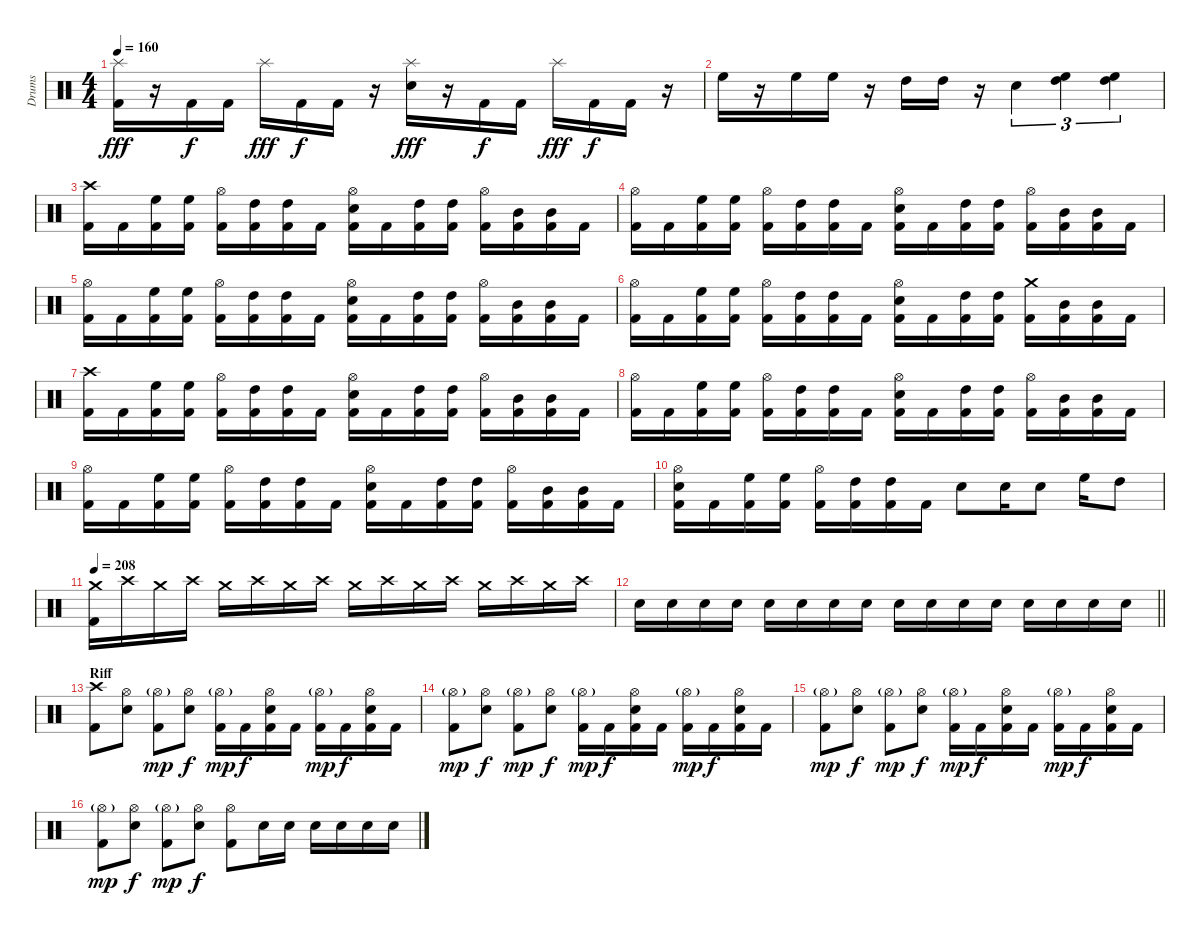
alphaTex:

\track ("Drums" "Drums") {instrument percussion}
\staff
\articulation defaults
\ts (4 4)
\tempo 160
\clef neutral
\ks c
("Splash (hit)" "Kick (hit) 2").16{dy fff} r.16 "Kick (hit) 2".16{dy f} "Kick (hit) 2".16 "Splash (hit)".16{dy fff} "Kick (hit) 2".16{dy f} "Kick (hit) 2".16 r.16 ("Splash (hit)" "Electric Snare (hit)").16{dy fff} r.16 "Kick (hit) 2".16{dy f} "Kick (hit) 2".16 "Splash (hit)".16{dy fff} "Kick (hit) 2".16{dy f} "Kick (hit) 2".16 r.16 |
"High Floor Tom (hit)".16 r.16 "High Floor Tom (hit)".16 "High Floor Tom (hit)".16 r.16 "High Tom (hit)".16 "High Tom (hit)".16 r.16 "Electric Snare (hit)".4{tu (3 2)} ("High Floor Tom (hit)" "High Tom (hit)").4{tu (3 2)} ("High Floor Tom (hit)" "High Tom (hit)").4{tu (3 2)} |
("Crash high (hit)" "Kick (hit) 2").16 "Kick (hit) 2".16 ("High Floor Tom (hit)" "Kick (hit) 2").16 ("High Floor Tom (hit)" "Kick (hit) 2").16 ("Hi-Hat (open)" "Kick (hit) 2").16 ("High Tom (hit)" "Kick (hit) 2").16 ("High Tom (hit)" "Kick (hit) 2").16 "Kick (hit) 2".16 ("Hi-Hat (open)" "Electric Snare (hit)" "Kick (hit) 2").16 "Kick (hit) 2".16 ("High Tom (hit)" "Kick (hit) 2").16 ("High Tom (hit)" "Kick (hit) 2").16 ("Hi-Hat (open)" "Kick (hit) 2").16 ("Mid Tom (hit)" "Kick (hit) 2").16 ("Mid Tom (hit)" "Kick (hit) 2").16 "Kick (hit) 2".16 |
("Hi-Hat (open)" "Kick (hit) 2").16 "Kick (hit) 2".16 ("High Floor Tom (hit)" "Kick (hit) 2").16 ("High Floor Tom (hit)" "Kick (hit) 2").16 ("Hi-Hat (open)" "Kick (hit) 2").16 ("High Tom (hit)" "Kick (hit) 2").16 ("High Tom (hit)" "Kick (hit) 2").16 "Kick (hit) 2".16 ("Hi-Hat (open)" "Electric Snare (hit)" "Kick (hit) 2").16 "Kick (hit) 2".16 ("High Tom (hit)" "Kick (hit) 2").16 ("High Tom (hit)" "Kick (hit) 2").16 ("Hi-Hat (open)" "Kick (hit) 2").16 ("Mid Tom (hit)" "Kick (hit) 2").16 ("Mid Tom (hit)" "Kick (hit) 2").16 "Kick (hit) 2".16 |
("Hi-Hat (open)" "Kick (hit) 2").16 "Kick (hit) 2".16 ("High Floor Tom (hit)" "Kick (hit) 2").16 ("High Floor Tom (hit)" "Kick (hit) 2").16 ("Hi-Hat (open)" "Kick (hit) 2").16 ("High Tom (hit)" "Kick (hit) 2").16 ("High Tom (hit)" "Kick (hit) 2").16 "Kick (hit) 2".16 ("Hi-Hat (open)" "Electric Snare (hit)" "Kick (hit) 2").16 "Kick (hit) 2".16 ("High Tom (hit)" "Kick (hit) 2").16 ("High Tom (hit)" "Kick (hit) 2").16 ("Hi-Hat (open)" "Kick (hit) 2").16 ("Mid Tom (hit)" "Kick (hit) 2").16 ("Mid Tom (hit)" "Kick (hit) 2").16 "Kick (hit) 2".16 |
("Hi-Hat (open)" "Kick (hit) 2").16 "Kick (hit) 2".16 ("High Floor Tom (hit)" "Kick (hit) 2").16 ("High Floor Tom (hit)" "Kick (hit) 2").16 ("Hi-Hat (open)" "Kick (hit) 2").16 ("High Tom (hit)" "Kick (hit) 2").16 ("High Tom (hit)" "Kick (hit) 2").16 "Kick (hit) 2".16 ("Hi-Hat (open)" "Electric Snare (hit)" "Kick (hit) 2").16 "Kick (hit) 2".16 ("High Tom (hit)" "Kick (hit) 2").16 ("High Tom (hit)" "Kick (hit) 2").16 ("Crash medium (hit)" "Kick (hit) 2").16 ("Mid Tom (hit)" "Kick (hit) 2").16 ("Mid Tom (hit)" "Kick (hit) 2").16 "Kick (hit) 2".16 |
("Crash high (hit)" "Kick (hit) 2").16 "Kick (hit) 2".16 ("High Floor Tom (hit)" "Kick (hit) 2").16 ("High Floor Tom (hit)" "Kick (hit) 2").16 ("Hi-Hat (open)" "Kick (hit) 2").16 ("High Tom (hit)" "Kick (hit) 2").16 ("High Tom (hit)" "Kick (hit) 2").16 "Kick (hit) 2".16 ("Hi-Hat (open)" "Electric Snare (hit)" "Kick (hit) 2").16 "Kick (hit) 2".16 ("High Tom (hit)" "Kick (hit) 2").16 ("High Tom (hit)" "Kick (hit) 2").16 ("Hi-Hat (open)" "Kick (hit) 2").16 ("Mid Tom (hit)" "Kick (hit) 2").16 ("Mid Tom (hit)" "Kick (hit) 2").16 "Kick (hit) 2".16 |
("Hi-Hat (open)" "Kick (hit) 2").16 "Kick (hit) 2".16 ("High Floor Tom (hit)" "Kick (hit) 2").16 ("High Floor Tom (hit)" "Kick (hit) 2").16 ("Hi-Hat (open)" "Kick (hit) 2").16 ("High Tom (hit)" "Kick (hit) 2").16 ("High Tom (hit)" "Kick (hit) 2").16 "Kick (hit) 2".16 ("Hi-Hat (open)" "Electric Snare (hit)" "Kick (hit) 2").16 "Kick (hit) 2".16 ("High Tom (hit)" "Kick (hit) 2").16 ("High Tom (hit)" "Kick (hit) 2").16 ("Hi-Hat (open)" "Kick (hit) 2").16 ("Mid Tom (hit)" "Kick (hit) 2").16 ("Mid Tom (hit)" "Kick (hit) 2").16 "Kick (hit) 2".16 |
("Hi-Hat (open)" "Kick (hit) 2").16 "Kick (hit) 2".16 ("High Floor Tom (hit)" "Kick (hit) 2").16 ("High Floor Tom (hit)" "Kick (hit) 2").16 ("Hi-Hat (open)" "Kick (hit) 2").16 ("High Tom (hit)" "Kick (hit) 2").16 ("High Tom (hit)" "Kick (hit) 2").16 "Kick (hit) 2".16 ("Hi-Hat (open)" "Electric Snare (hit)" "Kick (hit) 2").16 "Kick (hit) 2".16 ("High Tom (hit)" "Kick (hit) 2").16 ("High Tom (hit)" "Kick (hit) 2").16 ("Hi-Hat (open)" "Kick (hit) 2").16 ("Mid Tom (hit)" "Kick (hit) 2").16 ("Mid Tom (hit)" "Kick (hit) 2").16 "Kick (hit) 2".16 |
("Hi-Hat (open)" "Electric Snare (hit)" "Kick (hit) 2").16 "Kick (hit) 2".16 ("High Floor Tom (hit)" "Kick (hit) 2").16 ("High Floor Tom (hit)" "Kick (hit) 2").16 ("Hi-Hat (open)" "Kick (hit) 2").16 ("High Tom (hit)" "Kick (hit) 2").16 ("High Tom (hit)" "Kick (hit) 2").16 "Kick (hit) 2".16 "Electric Snare (hit)".8 "Electric Snare (hit)".16 "Electric Snare (hit)".8 "High Floor Tom (hit)".16 "High Tom (hit)".8 |
\tempo 208
("Crash medium (hit)" "Kick (hit) 2").16 "Crash high (hit)".16 "Crash medium (hit)".16 "Crash high (hit)".16 "Crash medium (hit)".16 "Crash high (hit)".16 "Crash medium (hit)".16 "Crash high (hit)".16 "Crash medium (hit)".16 "Crash high (hit)".16 "Crash medium (hit)".16 "Crash high (hit)".16 "Crash medium (hit)".16 "Crash high (hit)".16 "Crash medium (hit)".16 "Crash high (hit)".16 |
\barLineRight lightlight "Electric Snare (hit)".16 "Electric Snare (hit)".16 "Electric Snare (hit)".16 "Electric Snare (hit)".16 "Electric Snare (hit)".16 "Electric Snare (hit)".16 "Electric Snare (hit)".16 "Electric Snare (hit)".16 "Electric Snare (hit)".16 "Electric Snare (hit)".16 "Electric Snare (hit)".16 "Electric Snare (hit)".16 "Electric Snare (hit)".16 "Electric Snare (hit)".16 "Electric Snare (hit)".16 "Electric Snare (hit)".16
|
\section ("" "Riff")
("Crash high (hit)" "Kick (hit) 2").8 ("Hi-Hat (open)" "Electric Snare (hit)").8 ("Hi-Hat (open)"{g} "Kick (hit) 2").8{dy mp} ("Hi-Hat (open)" "Electric Snare (hit)").8{dy f} ("Hi-Hat (open)"{g} "Kick (hit) 2").16{dy mp} "Kick (hit) 2".16{dy f} ("Hi-Hat (open)" "Electric Snare (hit)" "Kick (hit) 2").16 "Kick (hit) 2".16 ("Hi-Hat (open)"{g} "Kick (hit) 2").16{dy mp} "Kick (hit) 2".16{dy f} ("Hi-Hat (open)" "Electric Snare (hit)" "Kick (hit) 2").16 "Kick (hit) 2".16 |
("Hi-Hat (open)"{g} "Kick (hit) 2").8{dy mp} ("Hi-Hat (open)" "Electric Snare (hit)").8{dy f} ("Hi-Hat (open)"{g} "Kick (hit) 2").8{dy mp} ("Hi-Hat (open)" "Electric Snare (hit)").8{dy f} ("Hi-Hat (open)"{g} "Kick (hit) 2").16{dy mp} "Kick (hit) 2".16{dy f} ("Hi-Hat (open)" "Electric Snare (hit)" "Kick (hit) 2").16 "Kick (hit) 2".16 ("Hi-Hat (open)"{g} "Kick (hit) 2").16{dy mp} "Kick (hit) 2".16{dy f} ("Hi-Hat (open)" "Electric Snare (hit)" "Kick (hit) 2").16 "Kick (hit) 2".16 |
("Hi-Hat (open)"{g} "Kick (hit) 2").8{dy mp} ("Hi-Hat (open)" "Electric Snare (hit)").8{dy f} ("Hi-Hat (open)"{g} "Kick (hit) 2").8{dy mp} ("Hi-Hat (open)" "Electric Snare (hit)").8{dy f} ("Hi-Hat (open)"{g} "Kick (hit) 2").16{dy mp} "Kick (hit) 2".16{dy f} ("Hi-Hat (open)" "Electric Snare (hit)" "Kick (hit) 2").16 "Kick (hit) 2".16 ("Hi-Hat (open)"{g} "Kick (hit) 2").16{dy mp} "Kick (hit) 2".16{dy f} ("Hi-Hat (open)" "Electric Snare (hit)" "Kick (hit) 2").16 "Kick (hit) 2".16 |
("Hi-Hat (open)"{g} "Kick (hit) 2").8{dy mp} ("Hi-Hat (open)" "Electric Snare (hit)").8{dy f} ("Hi-Hat (open)"{g} "Kick (hit) 2").8{dy mp} ("Hi-Hat (open)" "Electric Snare (hit)").8{dy f} ("Hi-Hat (open)" "Kick (hit) 2").8 "Electric Snare (hit)".16 "Electric Snare (hit)".16 "Electric Snare (hit)".16 "Electric Snare (hit)".16 "Electric Snare (hit)".16 "Electric Snare (hit)".16
